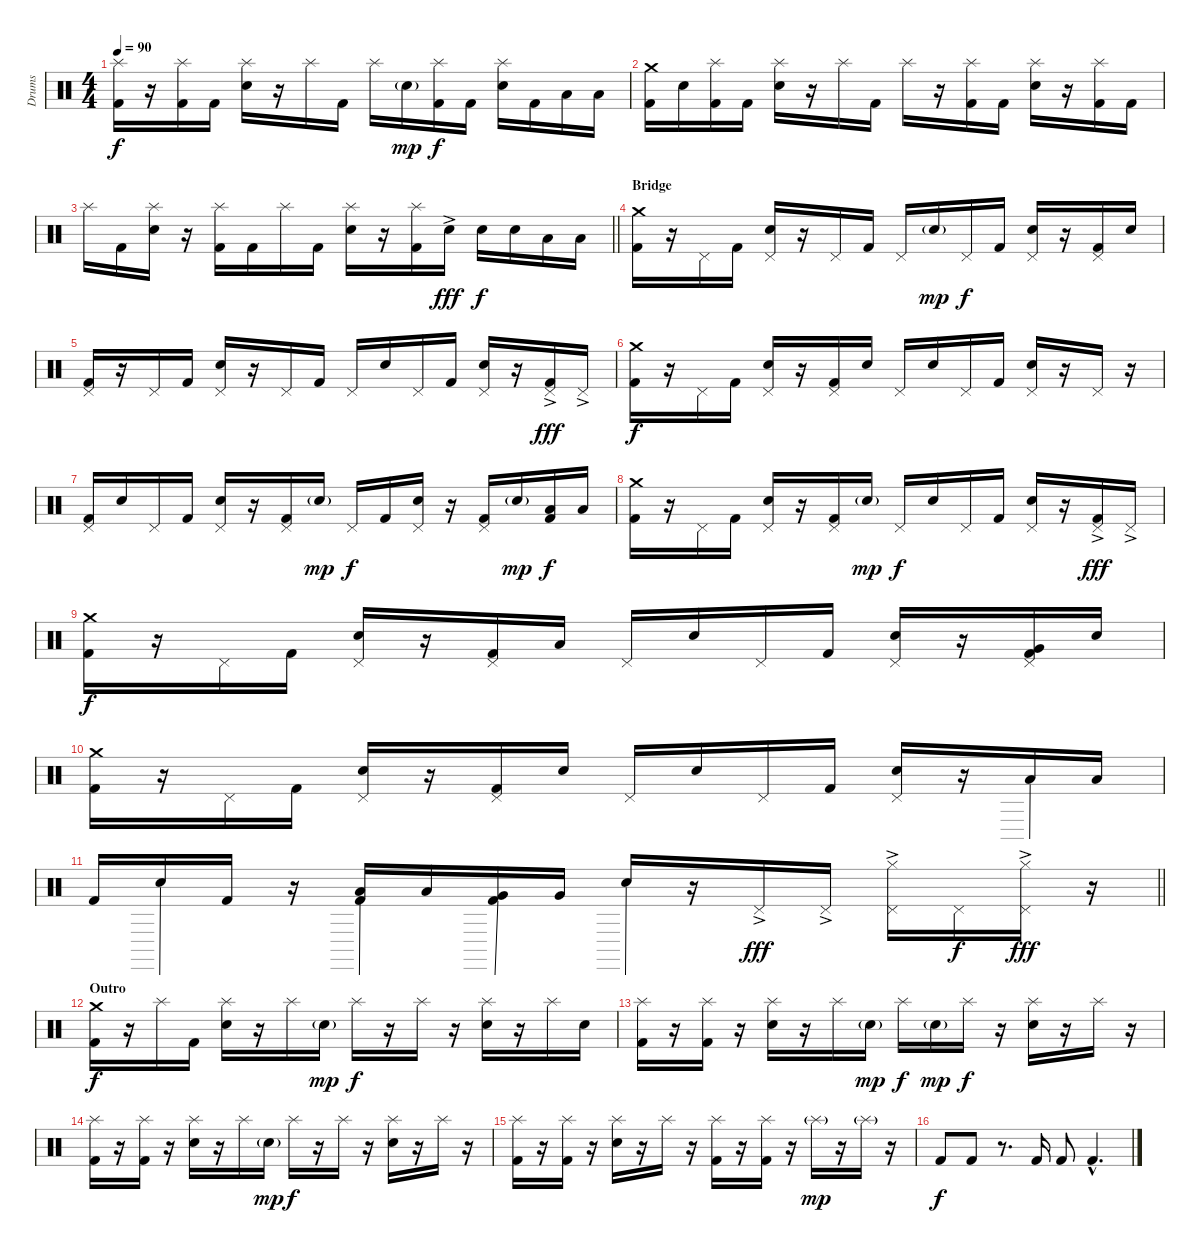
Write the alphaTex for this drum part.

\track ("Drums" "Drums") {instrument percussion}
\staff {score}
\articulation defaults
\ts (4 4)
\tempo 90
\clef neutral
\ks c
("Splash (hit)" "Kick (hit) 2").16{dy f} r.16 ("Splash (hit)" "Kick (hit) 2").16 "Kick (hit) 2".16 ("Splash (hit)" "Electric Snare (hit)").16 r.16 "Splash (hit)".16 "Kick (hit) 2".16 "Splash (hit)".16 "Electric Snare (hit)"{g}.16{dy mp} ("Splash (hit)" "Kick (hit) 2").16{dy f} "Kick (hit) 2".16 ("Splash (hit)" "Electric Snare (hit)").16 "Kick (hit) 2".16 "Low Tom (hit)".16 "Low Tom (hit)".16 |
("Crash medium (hit)" "Kick (hit) 2").16 "Electric Snare (hit)".16 ("Splash (hit)" "Kick (hit) 2").16 "Kick (hit) 2".16 ("Splash (hit)" "Electric Snare (hit)").16 r.16 "Splash (hit)".16 "Kick (hit) 2".16 "Splash (hit)".16 r.16 ("Splash (hit)" "Kick (hit) 2").16 "Kick (hit) 2".16 ("Splash (hit)" "Electric Snare (hit)").16 r.16 ("Splash (hit)" "Kick (hit) 2").16 "Kick (hit) 2".16 |
\barLineRight lightlight "Splash (hit)".16 "Kick (hit) 2".16
("Splash (hit)" "Electric Snare (hit)").16 r.16 ("Splash (hit)" "Kick (hit) 2").16 "Kick (hit) 2".16 "Splash (hit)".16 "Kick (hit) 2".16 ("Splash (hit)" "Electric Snare (hit)").16 r.16 ("Splash (hit)" "Kick (hit) 2").16 "Electric Snare (hit)"{ac}.16{dy fff} "Electric Snare (hit)".16{dy f} "Electric Snare (hit)".16 "Low Tom (hit)".16 "Low Tom (hit)".16 |
\section ("" "Bridge")
("Crash medium (hit)" "Kick (hit) 2").16 r.16 "Pedal Hi-Hat (hit)".16 "Kick (hit) 2".16 ("Pedal Hi-Hat (hit)" "Electric Snare (hit)").16 r.16 "Pedal Hi-Hat (hit)".16 "Kick (hit) 2".16 "Pedal Hi-Hat (hit)".16 "Electric Snare (hit)"{g}.16{dy mp} "Pedal Hi-Hat (hit)".16{dy f} "Kick (hit) 2".16 ("Pedal Hi-Hat (hit)" "Electric Snare (hit)").16 r.16 ("Pedal Hi-Hat (hit)" "Kick (hit) 2").16 "Electric Snare (hit)".16 |
("Pedal Hi-Hat (hit)" "Kick (hit) 2").16 r.16 "Pedal Hi-Hat (hit)".16 "Kick (hit) 2".16 ("Pedal Hi-Hat (hit)" "Electric Snare (hit)").16 r.16 "Pedal Hi-Hat (hit)".16 "Kick (hit) 2".16 "Pedal Hi-Hat (hit)".16 "Electric Snare (hit)".16 "Pedal Hi-Hat (hit)".16 "Kick (hit) 2".16 ("Pedal Hi-Hat (hit)" "Electric Snare (hit)").16 r.16 ("Pedal Hi-Hat (hit)"{ac} "Kick (hit) 2").16{dy fff} "Pedal Hi-Hat (hit)"{ac}.16 |
("Crash medium (hit)" "Kick (hit) 2").16{dy f} r.16 "Pedal Hi-Hat (hit)".16 "Kick (hit) 2".16 ("Pedal Hi-Hat (hit)" "Electric Snare (hit)").16 r.16 ("Pedal Hi-Hat (hit)" "Kick (hit) 2").16 "Electric Snare (hit)".16 "Pedal Hi-Hat (hit)".16 "Electric Snare (hit)".16 "Pedal Hi-Hat (hit)".16 "Kick (hit) 2".16 ("Pedal Hi-Hat (hit)" "Electric Snare (hit)").16 r.16 "Pedal Hi-Hat (hit)".16 r.16 |
("Pedal Hi-Hat (hit)" "Kick (hit) 2").16 "Electric Snare (hit)".16 "Pedal Hi-Hat (hit)".16 "Kick (hit) 2".16 ("Pedal Hi-Hat (hit)" "Electric Snare (hit)").16 r.16 ("Pedal Hi-Hat (hit)" "Kick (hit) 2").16 "Electric Snare (hit)"{g}.16{dy mp} "Pedal Hi-Hat (hit)".16{dy f} "Kick (hit) 2".16 ("Pedal Hi-Hat (hit)" "Electric Snare (hit)").16 r.16 ("Pedal Hi-Hat (hit)" "Kick (hit) 2").16 "Electric Snare (hit)"{g}.16{dy mp} ("Low Tom (hit)" "Kick (hit) 2").16{dy f} "Low Tom (hit)".16 |
("Crash medium (hit)" "Kick (hit) 2").16 r.16 "Pedal Hi-Hat (hit)".16 "Kick (hit) 2".16 ("Pedal Hi-Hat (hit)" "Electric Snare (hit)").16 r.16 ("Pedal Hi-Hat (hit)" "Kick (hit) 2").16 "Electric Snare (hit)"{g}.16{dy mp} "Pedal Hi-Hat (hit)".16{dy f} "Electric Snare (hit)".16 "Pedal Hi-Hat (hit)".16 "Kick (hit) 2".16 ("Pedal Hi-Hat (hit)" "Electric Snare (hit)").16 r.16 ("Pedal Hi-Hat (hit)"{ac} "Kick (hit) 2").16{dy fff} "Pedal Hi-Hat (hit)"{ac}.16 |
("Crash medium (hit)" "Kick (hit) 2").16{dy f} r.16 "Pedal Hi-Hat (hit)".16 "Kick (hit) 2".16 ("Pedal Hi-Hat (hit)" "Electric Snare (hit)").16 r.16 ("Pedal Hi-Hat (hit)" "Kick (hit) 2").16 "Low Tom (hit)".16 "Pedal Hi-Hat (hit)".16 "Electric Snare (hit)".16 "Pedal Hi-Hat (hit)".16 "Kick (hit) 2".16 ("Pedal Hi-Hat (hit)" "Electric Snare (hit)").16 r.16 ("Pedal Hi-Hat (hit)" "Very Low Tom (hit)" "Kick (hit) 2").16 "Electric Snare (hit)".16 |
("Crash medium (hit)" "Kick (hit) 2").16 r.16 "Pedal Hi-Hat (hit)".16 "Kick (hit) 2".16 ("Pedal Hi-Hat (hit)" "Electric Snare (hit)").16 r.16 ("Pedal Hi-Hat (hit)" "Kick (hit) 2").16 "Electric Snare (hit)".16 "Pedal Hi-Hat (hit)".16 "Electric Snare (hit)".16 "Pedal Hi-Hat (hit)".16 "Kick (hit) 2".16 ("Pedal Hi-Hat (hit)" "Electric Snare (hit)").16 r.16 "Low Tom (hit)"{be (prebend 0 1 60 1)}.16 "Low Tom (hit)".16 |
\barLineRight lightlight "Kick (hit) 2".16 "Electric Snare (hit)"{be (prebend 0 4 60 4)}.16 "Kick (hit) 2".16
r.16 ("Low Tom (hit)"{be (prebend 0 1 60 1)} "Kick (hit) 2").16 "Low Tom (hit)".16 ("Very Low Tom (hit)"{be (prebend 0 2 60 2)} "Kick (hit) 2").16 "Very Low Tom (hit)".16 "Electric Snare (hit)"{be (prebend 0 4 60 4)}.16 r.16 "Pedal Hi-Hat (hit)"{ac}.16{dy fff} "Pedal Hi-Hat (hit)"{ac}.16 ("Hi-Hat (closed)"{ac} "Pedal Hi-Hat (hit)"{ac}).16 "Pedal Hi-Hat (hit)".16{dy f} ("Hi-Hat (closed)"{ac} "Pedal Hi-Hat (hit)"{ac}).16{dy fff} r.16 |
\section ("" "Outro")
("Crash medium (hit)" "Kick (hit) 2").16{dy f} r.16 "Splash (hit)".16 "Kick (hit) 2".16 ("Splash (hit)" "Electric Snare (hit)").16 r.16 "Splash (hit)".16 "Electric Snare (hit)"{g}.16{dy mp} "Splash (hit)".16{dy f} r.16 "Splash (hit)".16 r.16 ("Splash (hit)" "Electric Snare (hit)").16 r.16 "Splash (hit)".16 "Snare (hit) 2".16 |
("Splash (hit)" "Kick (hit) 2").16 r.16 ("Splash (hit)" "Kick (hit) 2").16 r.16 ("Splash (hit)" "Electric Snare (hit)").16 r.16 "Splash (hit)".16 "Electric Snare (hit)"{g}.16{dy mp} "Splash (hit)".16{dy f} "Electric Snare (hit)"{g}.16{dy mp} "Splash (hit)".16{dy f} r.16 ("Splash (hit)" "Electric Snare (hit)").16 r.16 "Splash (hit)".16 r.16 |
("Splash (hit)" "Kick (hit) 2").16 r.16 ("Splash (hit)" "Kick (hit) 2").16 r.16 ("Splash (hit)" "Electric Snare (hit)").16 r.16 "Splash (hit)".16 "Electric Snare (hit)"{g}.16{dy mp} "Splash (hit)".16{dy f} r.16 "Splash (hit)".16 r.16 ("Splash (hit)" "Electric Snare (hit)").16 r.16 "Splash (hit)".16 r.16 |
("Splash (hit)" "Kick (hit) 2").16 r.16 ("Splash (hit)" "Kick (hit) 2").16 r.16 ("Splash (hit)" "Electric Snare (hit)").16 r.16 "Splash (hit)".16 r.16 ("Splash (hit)" "Kick (hit) 2").16 r.16 ("Splash (hit)" "Kick (hit) 2").16 r.16 "Splash (hit)"{g}.16{dy mp} r.16 "Splash (hit)"{g}.16 r.16 |
"Kick (hit) 2".8{dy f} "Kick (hit) 2".8 r.8{d} "Kick (hit) 2".16 "Kick (hit) 2".8 "Kick (hit) 2"{hac}.4{d}
